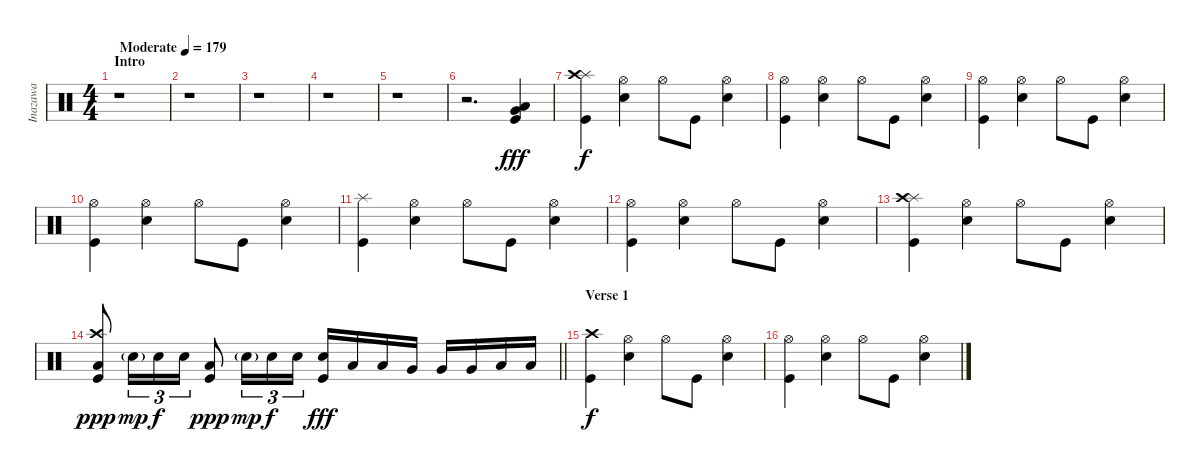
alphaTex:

\track ("Inazawa" "Inazawa") {instrument percussion}
\staff {score}
\articulation defaults
\ts (4 4)
\section ("" "Intro")
\tempo (179 "Moderate")
\clef neutral
\ks c
r.1{dy fff} |
r.1 |
r.1 |
r.1 |
r.1 |
r.2{d} ("Very Low Tom (hit)" "Low Floor Tom (hit)" "Kick (hit)").4 |
("Splash (hit)" "Crash high (hit)" "Kick (hit)").4{dy f} ("Hi-Hat (open)" "Snare (hit) 2").4 "Hi-Hat (open)".8 "Kick (hit)".8 ("Hi-Hat (open)" "Snare (hit) 2").4 |
("Hi-Hat (open)" "Kick (hit)").4 ("Hi-Hat (open)" "Snare (hit) 2").4 "Hi-Hat (open)".8 "Kick (hit)".8 ("Hi-Hat (open)" "Snare (hit) 2").4 |
("Hi-Hat (open)" "Kick (hit)").4 ("Hi-Hat (open)" "Snare (hit) 2").4 "Hi-Hat (open)".8 "Kick (hit)".8 ("Hi-Hat (open)" "Snare (hit) 2").4 |
("Hi-Hat (open)" "Kick (hit)").4 ("Hi-Hat (open)" "Snare (hit) 2").4 "Hi-Hat (open)".8 "Kick (hit)".8 ("Hi-Hat (open)" "Snare (hit) 2").4 |
("Splash (hit)" "Kick (hit)").4 ("Hi-Hat (open)" "Snare (hit) 2").4 "Hi-Hat (open)".8 "Kick (hit)".8 ("Hi-Hat (open)" "Snare (hit) 2").4 |
("Hi-Hat (open)" "Kick (hit)").4 ("Hi-Hat (open)" "Snare (hit) 2").4 "Hi-Hat (open)".8 "Kick (hit)".8 ("Hi-Hat (open)" "Snare (hit) 2").4 |
("Splash (hit)" "Crash high (hit)" "Kick (hit)").4 ("Hi-Hat (open)" "Snare (hit) 2").4 "Hi-Hat (open)".8 "Kick (hit)".8 ("Hi-Hat (open)" "Snare (hit) 2").4 |
\barLineRight lightlight
("Crash high (hit)" "Low Tom (hit)" "Kick (hit)").8{dy ppp} "Snare (hit) 2"{g}.16{tu (3 2) dy mp} "Snare (hit) 2".16{tu (3 2) dy f} "Snare (hit) 2".16{tu (3 2)} ("Low Tom (hit)" "Kick (hit)").8{dy ppp} "Snare (hit) 2"{g}.16{tu (3 2) dy mp} "Snare (hit) 2".16{tu (3 2) dy f} "Snare (hit) 2".16{tu (3 2)} ("Snare (hit) 2" "Kick (hit)").16{dy fff} "Low Tom (hit)".16 "Low Tom (hit)".16 "Very Low Tom (hit)".16 "Very Low Tom (hit)".16 "Very Low Tom (hit)".16 "Low Floor Tom (hit)".16 "Low Floor Tom (hit)".16 |
\section ("" "Verse 1")
("Crash high (hit)" "Kick (hit)").4{dy f} ("Hi-Hat (open)" "Snare (hit) 2").4 "Hi-Hat (open)".8 "Kick (hit)".8 ("Hi-Hat (open)" "Snare (hit) 2").4 |
("Hi-Hat (open)" "Kick (hit)").4 ("Hi-Hat (open)" "Snare (hit) 2").4 "Hi-Hat (open)".8 "Kick (hit)".8 ("Hi-Hat (open)" "Snare (hit) 2").4
